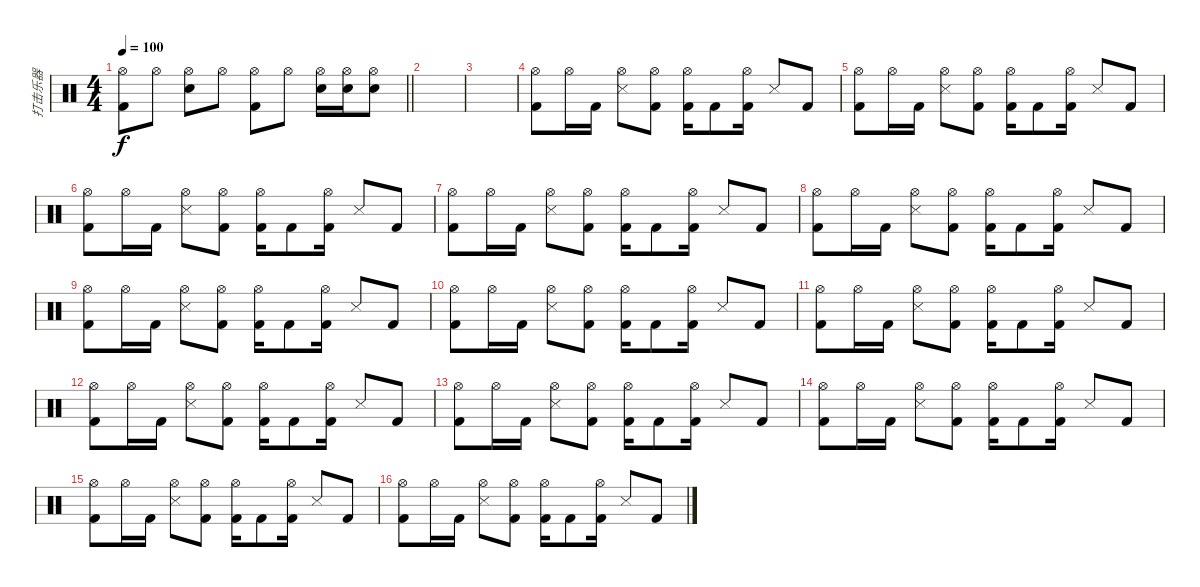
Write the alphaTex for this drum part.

\track ("打击乐器" "打击乐器") {instrument percussion}
\staff {score}
\articulation defaults
\ts (4 4)
\tempo 100
\clef neutral
\barLineRight lightlight
\ks c
("Kick (hit) 2" "Hi-Hat (open)").8{dy f} "Hi-Hat (open)".8 ("Electric Snare (hit)" "Hi-Hat (open)").8 "Hi-Hat (open)".8 ("Kick (hit) 2" "Hi-Hat (open)").8 "Hi-Hat (open)".8 ("Electric Snare (hit)" "Hi-Hat (open)").16 ("Electric Snare (hit)" "Hi-Hat (open)").16 ("Electric Snare (hit)" "Hi-Hat (open)").8 |
|
|
("Hi-Hat (open)" "Kick (hit) 2").8 "Hi-Hat (open)".16 "Kick (hit) 2".16 ("Snare (side stick) 3" "Hi-Hat (open)").8 ("Kick (hit) 2" "Hi-Hat (open)").8 ("Kick (hit) 2" "Hi-Hat (open)").16 "Kick (hit) 2".8 ("Kick (hit) 2" "Hi-Hat (open)").16 "Snare (side stick) 3".8 "Kick (hit) 2".8 |
("Hi-Hat (open)" "Kick (hit) 2").8 "Hi-Hat (open)".16 "Kick (hit) 2".16 ("Snare (side stick) 3" "Hi-Hat (open)").8 ("Kick (hit) 2" "Hi-Hat (open)").8 ("Kick (hit) 2" "Hi-Hat (open)").16 "Kick (hit) 2".8 ("Kick (hit) 2" "Hi-Hat (open)").16 "Snare (side stick) 3".8 "Kick (hit) 2".8 |
("Hi-Hat (open)" "Kick (hit) 2").8 "Hi-Hat (open)".16 "Kick (hit) 2".16 ("Snare (side stick) 3" "Hi-Hat (open)").8 ("Kick (hit) 2" "Hi-Hat (open)").8 ("Kick (hit) 2" "Hi-Hat (open)").16 "Kick (hit) 2".8 ("Kick (hit) 2" "Hi-Hat (open)").16 "Snare (side stick) 3".8 "Kick (hit) 2".8 |
("Hi-Hat (open)" "Kick (hit) 2").8 "Hi-Hat (open)".16 "Kick (hit) 2".16 ("Snare (side stick) 3" "Hi-Hat (open)").8 ("Kick (hit) 2" "Hi-Hat (open)").8 ("Kick (hit) 2" "Hi-Hat (open)").16 "Kick (hit) 2".8 ("Kick (hit) 2" "Hi-Hat (open)").16 "Snare (side stick) 3".8 "Kick (hit) 2".8 |
("Hi-Hat (open)" "Kick (hit) 2").8 "Hi-Hat (open)".16 "Kick (hit) 2".16 ("Snare (side stick) 3" "Hi-Hat (open)").8 ("Kick (hit) 2" "Hi-Hat (open)").8 ("Kick (hit) 2" "Hi-Hat (open)").16 "Kick (hit) 2".8 ("Kick (hit) 2" "Hi-Hat (open)").16 "Snare (side stick) 3".8 "Kick (hit) 2".8 |
("Hi-Hat (open)" "Kick (hit) 2").8 "Hi-Hat (open)".16 "Kick (hit) 2".16 ("Snare (side stick) 3" "Hi-Hat (open)").8 ("Kick (hit) 2" "Hi-Hat (open)").8 ("Kick (hit) 2" "Hi-Hat (open)").16 "Kick (hit) 2".8 ("Kick (hit) 2" "Hi-Hat (open)").16 "Snare (side stick) 3".8 "Kick (hit) 2".8 |
("Hi-Hat (open)" "Kick (hit) 2").8 "Hi-Hat (open)".16 "Kick (hit) 2".16 ("Snare (side stick) 3" "Hi-Hat (open)").8 ("Kick (hit) 2" "Hi-Hat (open)").8 ("Kick (hit) 2" "Hi-Hat (open)").16 "Kick (hit) 2".8 ("Kick (hit) 2" "Hi-Hat (open)").16 "Snare (side stick) 3".8 "Kick (hit) 2".8 |
("Hi-Hat (open)" "Kick (hit) 2").8 "Hi-Hat (open)".16 "Kick (hit) 2".16 ("Snare (side stick) 3" "Hi-Hat (open)").8 ("Kick (hit) 2" "Hi-Hat (open)").8 ("Kick (hit) 2" "Hi-Hat (open)").16 "Kick (hit) 2".8 ("Kick (hit) 2" "Hi-Hat (open)").16 "Snare (side stick) 3".8 "Kick (hit) 2".8 |
("Hi-Hat (open)" "Kick (hit) 2").8 "Hi-Hat (open)".16 "Kick (hit) 2".16 ("Snare (side stick) 3" "Hi-Hat (open)").8 ("Kick (hit) 2" "Hi-Hat (open)").8 ("Kick (hit) 2" "Hi-Hat (open)").16 "Kick (hit) 2".8 ("Kick (hit) 2" "Hi-Hat (open)").16 "Snare (side stick) 3".8 "Kick (hit) 2".8 |
("Hi-Hat (open)" "Kick (hit) 2").8 "Hi-Hat (open)".16 "Kick (hit) 2".16 ("Snare (side stick) 3" "Hi-Hat (open)").8 ("Kick (hit) 2" "Hi-Hat (open)").8 ("Kick (hit) 2" "Hi-Hat (open)").16 "Kick (hit) 2".8 ("Kick (hit) 2" "Hi-Hat (open)").16 "Snare (side stick) 3".8 "Kick (hit) 2".8 |
("Hi-Hat (open)" "Kick (hit) 2").8 "Hi-Hat (open)".16 "Kick (hit) 2".16 ("Snare (side stick) 3" "Hi-Hat (open)").8 ("Kick (hit) 2" "Hi-Hat (open)").8 ("Kick (hit) 2" "Hi-Hat (open)").16 "Kick (hit) 2".8 ("Kick (hit) 2" "Hi-Hat (open)").16 "Snare (side stick) 3".8 "Kick (hit) 2".8 |
("Hi-Hat (open)" "Kick (hit) 2").8 "Hi-Hat (open)".16 "Kick (hit) 2".16 ("Snare (side stick) 3" "Hi-Hat (open)").8 ("Kick (hit) 2" "Hi-Hat (open)").8 ("Kick (hit) 2" "Hi-Hat (open)").16 "Kick (hit) 2".8 ("Kick (hit) 2" "Hi-Hat (open)").16 "Snare (side stick) 3".8 "Kick (hit) 2".8 |
("Hi-Hat (open)" "Kick (hit) 2").8 "Hi-Hat (open)".16 "Kick (hit) 2".16 ("Snare (side stick) 3" "Hi-Hat (open)").8 ("Kick (hit) 2" "Hi-Hat (open)").8 ("Kick (hit) 2" "Hi-Hat (open)").16 "Kick (hit) 2".8 ("Kick (hit) 2" "Hi-Hat (open)").16 "Snare (side stick) 3".8 "Kick (hit) 2".8
